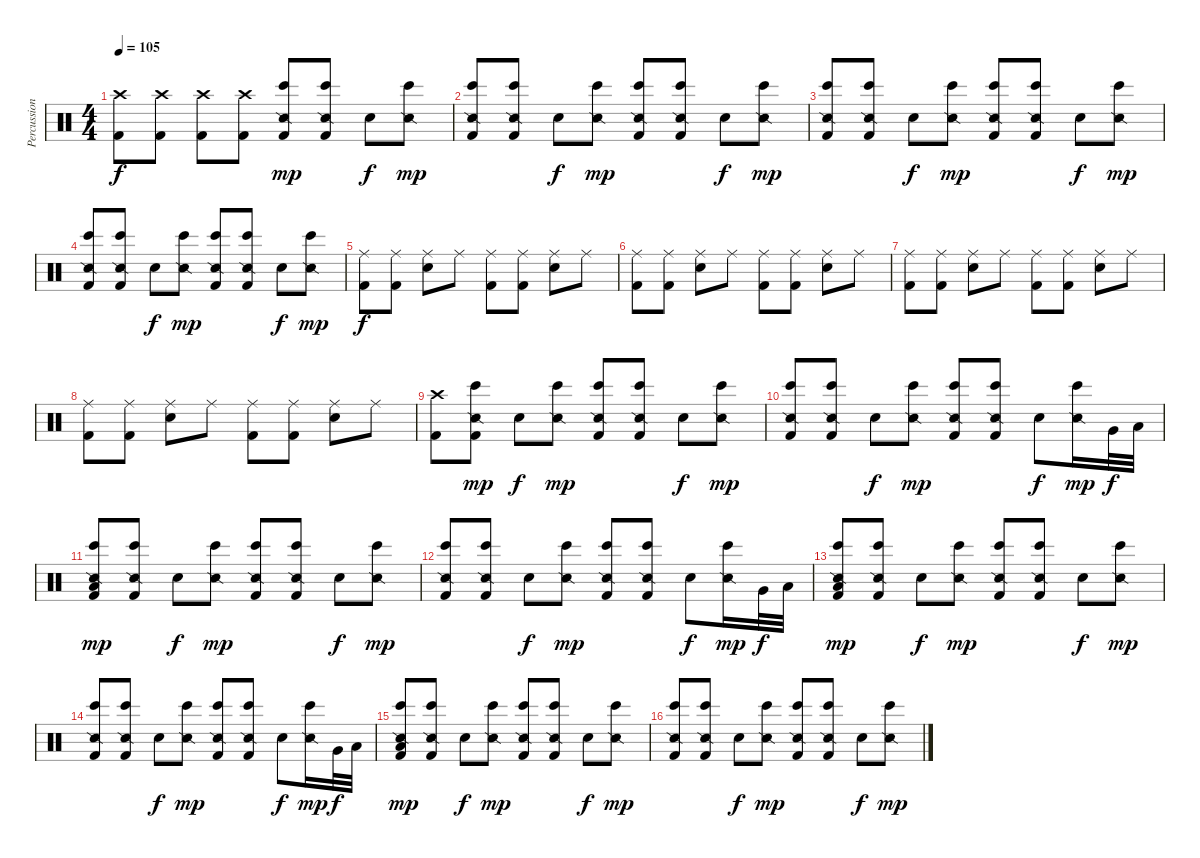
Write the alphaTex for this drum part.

\track ("Percussioni" "Percussion") {instrument percussion}
\staff {score}
\articulation defaults
\ts (4 4)
\tempo 105
\clef neutral
\ks c
("Crash high (hit)" "Kick (hit) 2").8{dy f} ("Crash high (hit)" "Kick (hit) 2").8 ("Crash high (hit)" "Kick (hit) 2").8 ("Crash high (hit)" "Kick (hit) 2").8 ("Bongo High (hit)" "Snare (side stick) 2" "Kick (hit) 2").8{dy mp} ("Bongo High (hit)" "Snare (side stick) 2" "Kick (hit) 2").8 "Snare (hit) 2".8{dy f} ("Bongo High (hit)" "Snare (side stick) 2").8{dy mp} |
("Bongo High (hit)" "Snare (side stick) 2" "Kick (hit) 2").8 ("Bongo High (hit)" "Snare (side stick) 2" "Kick (hit) 2").8 "Snare (hit) 2".8{dy f} ("Bongo High (hit)" "Snare (side stick) 2").8{dy mp} ("Bongo High (hit)" "Snare (side stick) 2" "Kick (hit) 2").8 ("Bongo High (hit)" "Snare (side stick) 2" "Kick (hit) 2").8 "Snare (hit) 2".8{dy f} ("Bongo High (hit)" "Snare (side stick) 2").8{dy mp} |
("Bongo High (hit)" "Snare (side stick) 2" "Kick (hit) 2").8 ("Bongo High (hit)" "Snare (side stick) 2" "Kick (hit) 2").8 "Snare (hit) 2".8{dy f} ("Bongo High (hit)" "Snare (side stick) 2").8{dy mp} ("Bongo High (hit)" "Snare (side stick) 2" "Kick (hit) 2").8 ("Bongo High (hit)" "Snare (side stick) 2" "Kick (hit) 2").8 "Snare (hit) 2".8{dy f} ("Bongo High (hit)" "Snare (side stick) 2").8{dy mp} |
("Bongo High (hit)" "Snare (side stick) 2" "Kick (hit) 2").8 ("Bongo High (hit)" "Snare (side stick) 2" "Kick (hit) 2").8 "Snare (hit) 2".8{dy f} ("Bongo High (hit)" "Snare (side stick) 2").8{dy mp} ("Bongo High (hit)" "Snare (side stick) 2" "Kick (hit) 2").8 ("Bongo High (hit)" "Snare (side stick) 2" "Kick (hit) 2").8 "Snare (hit) 2".8{dy f} ("Bongo High (hit)" "Snare (side stick) 2").8{dy mp} |
("Ride (middle)" "Kick (hit) 2").8{dy f} ("Ride (middle)" "Kick (hit) 2").8 ("Ride (middle)" "Snare (hit) 2").8 "Ride (middle)".8 ("Ride (middle)" "Kick (hit) 2").8 ("Ride (middle)" "Kick (hit) 2").8 ("Ride (middle)" "Snare (hit) 2").8 "Ride (middle)".8 |
("Ride (middle)" "Kick (hit) 2").8 ("Ride (middle)" "Kick (hit) 2").8 ("Ride (middle)" "Snare (hit) 2").8 "Ride (middle)".8 ("Ride (middle)" "Kick (hit) 2").8 ("Ride (middle)" "Kick (hit) 2").8 ("Ride (middle)" "Snare (hit) 2").8 "Ride (middle)".8 |
("Ride (middle)" "Kick (hit) 2").8 ("Ride (middle)" "Kick (hit) 2").8 ("Ride (middle)" "Snare (hit) 2").8 "Ride (middle)".8 ("Ride (middle)" "Kick (hit) 2").8 ("Ride (middle)" "Kick (hit) 2").8 ("Ride (middle)" "Snare (hit) 2").8 "Ride (middle)".8 |
("Ride (middle)" "Kick (hit) 2").8 ("Ride (middle)" "Kick (hit) 2").8 ("Ride (middle)" "Snare (hit) 2").8 "Ride (middle)".8 ("Ride (middle)" "Kick (hit) 2").8 ("Ride (middle)" "Kick (hit) 2").8 ("Ride (middle)" "Snare (hit) 2").8 "Ride (middle)".8 |
("Crash high (hit)" "Kick (hit) 2").8 ("Bongo High (hit)" "Snare (side stick) 2" "Kick (hit) 2").8{dy mp} "Snare (hit) 2".8{dy f} ("Bongo High (hit)" "Snare (side stick) 2").8{dy mp} ("Bongo High (hit)" "Snare (side stick) 2" "Kick (hit) 2").8 ("Bongo High (hit)" "Snare (side stick) 2" "Kick (hit) 2").8 "Snare (hit) 2".8{dy f} ("Bongo High (hit)" "Snare (side stick) 2").8{dy mp} |
("Bongo High (hit)" "Snare (side stick) 2" "Kick (hit) 2").8 ("Bongo High (hit)" "Snare (side stick) 2" "Kick (hit) 2").8 "Snare (hit) 2".8{dy f} ("Bongo High (hit)" "Snare (side stick) 2").8{dy mp} ("Bongo High (hit)" "Snare (side stick) 2" "Kick (hit) 2").8 ("Bongo High (hit)" "Snare (side stick) 2" "Kick (hit) 2").8 "Snare (hit) 2".8{dy f} ("Bongo High (hit)" "Snare (side stick) 2").16{dy mp} "Very Low Tom (hit)".32{dy f} "Low Floor Tom (hit)".32 |
("Bongo High (hit)" "Snare (side stick) 2" "Low Floor Tom (hit)" "Kick (hit) 2").8{dy mp} ("Bongo High (hit)" "Snare (side stick) 2" "Kick (hit) 2").8 "Snare (hit) 2".8{dy f} ("Bongo High (hit)" "Snare (side stick) 2").8{dy mp} ("Bongo High (hit)" "Snare (side stick) 2" "Kick (hit) 2").8 ("Bongo High (hit)" "Snare (side stick) 2" "Kick (hit) 2").8 "Snare (hit) 2".8{dy f} ("Bongo High (hit)" "Snare (side stick) 2").8{dy mp} |
("Bongo High (hit)" "Snare (side stick) 2" "Kick (hit) 2").8 ("Bongo High (hit)" "Snare (side stick) 2" "Kick (hit) 2").8 "Snare (hit) 2".8{dy f} ("Bongo High (hit)" "Snare (side stick) 2").8{dy mp} ("Bongo High (hit)" "Snare (side stick) 2" "Kick (hit) 2").8 ("Bongo High (hit)" "Snare (side stick) 2" "Kick (hit) 2").8 "Snare (hit) 2".8{dy f} ("Bongo High (hit)" "Snare (side stick) 2").16{dy mp} "Very Low Tom (hit)".32{dy f} "Low Floor Tom (hit)".32 |
("Bongo High (hit)" "Snare (side stick) 2" "Low Floor Tom (hit)" "Kick (hit) 2").8{dy mp} ("Bongo High (hit)" "Snare (side stick) 2" "Kick (hit) 2").8 "Snare (hit) 2".8{dy f} ("Bongo High (hit)" "Snare (side stick) 2").8{dy mp} ("Bongo High (hit)" "Snare (side stick) 2" "Kick (hit) 2").8 ("Bongo High (hit)" "Snare (side stick) 2" "Kick (hit) 2").8 "Snare (hit) 2".8{dy f} ("Bongo High (hit)" "Snare (side stick) 2").8{dy mp} |
("Bongo High (hit)" "Snare (side stick) 2" "Kick (hit) 2").8 ("Bongo High (hit)" "Snare (side stick) 2" "Kick (hit) 2").8 "Snare (hit) 2".8{dy f} ("Bongo High (hit)" "Snare (side stick) 2").8{dy mp} ("Bongo High (hit)" "Snare (side stick) 2" "Kick (hit) 2").8 ("Bongo High (hit)" "Snare (side stick) 2" "Kick (hit) 2").8 "Snare (hit) 2".8{dy f} ("Bongo High (hit)" "Snare (side stick) 2").16{dy mp} "Very Low Tom (hit)".32{dy f} "Low Floor Tom (hit)".32 |
("Bongo High (hit)" "Snare (side stick) 2" "Low Floor Tom (hit)" "Kick (hit) 2").8{dy mp} ("Bongo High (hit)" "Snare (side stick) 2" "Kick (hit) 2").8 "Snare (hit) 2".8{dy f} ("Bongo High (hit)" "Snare (side stick) 2").8{dy mp} ("Bongo High (hit)" "Snare (side stick) 2" "Kick (hit) 2").8 ("Bongo High (hit)" "Snare (side stick) 2" "Kick (hit) 2").8 "Snare (hit) 2".8{dy f} ("Bongo High (hit)" "Snare (side stick) 2").8{dy mp} |
("Bongo High (hit)" "Snare (side stick) 2" "Kick (hit) 2").8 ("Bongo High (hit)" "Snare (side stick) 2" "Kick (hit) 2").8 "Snare (hit) 2".8{dy f} ("Bongo High (hit)" "Snare (side stick) 2").8{dy mp} ("Bongo High (hit)" "Snare (side stick) 2" "Kick (hit) 2").8 ("Bongo High (hit)" "Snare (side stick) 2" "Kick (hit) 2").8 "Snare (hit) 2".8{dy f} ("Bongo High (hit)" "Snare (side stick) 2").8{dy mp}
